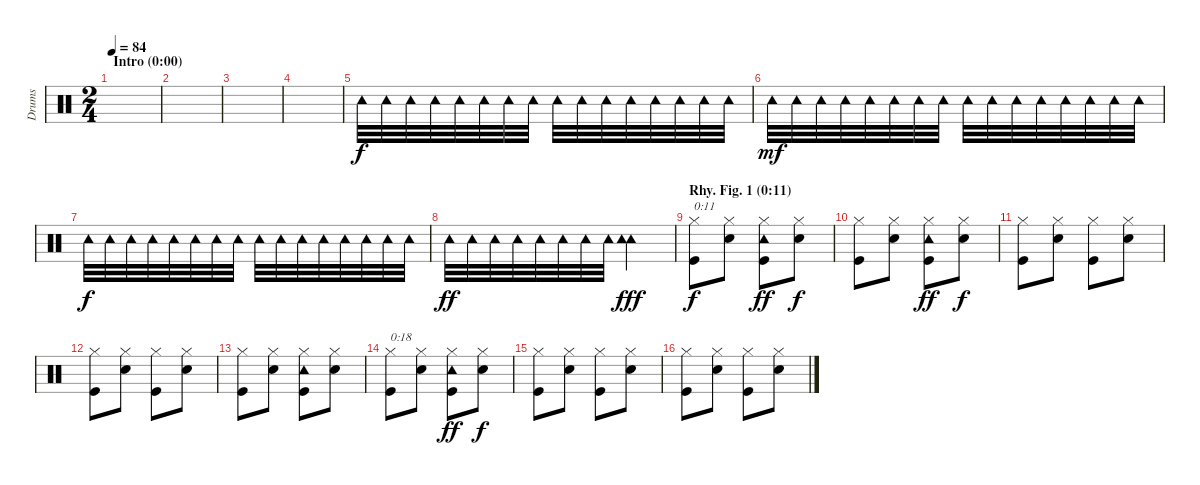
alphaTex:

\track ("Drums" "Drums") {instrument percussion}
\staff {score}
\articulation defaults
\ts (2 4)
\section ("" "Intro (0:00)")
\tempo 84
\clef neutral
\ks c
|
|
|
|
"Tambourine (hit)".32 "Tambourine (hit)".32 "Tambourine (hit)".32 "Tambourine (hit)".32 "Tambourine (hit)".32 "Tambourine (hit)".32 "Tambourine (hit)".32 "Tambourine (hit)".32 "Tambourine (hit)".32 "Tambourine (hit)".32 "Tambourine (hit)".32 "Tambourine (hit)".32 "Tambourine (hit)".32 "Tambourine (hit)".32 "Tambourine (hit)".32 "Tambourine (hit)".32 |
"Tambourine (hit)".32{dy mf} "Tambourine (hit)".32 "Tambourine (hit)".32 "Tambourine (hit)".32 "Tambourine (hit)".32 "Tambourine (hit)".32 "Tambourine (hit)".32 "Tambourine (hit)".32 "Tambourine (hit)".32 "Tambourine (hit)".32 "Tambourine (hit)".32 "Tambourine (hit)".32 "Tambourine (hit)".32 "Tambourine (hit)".32 "Tambourine (hit)".32 "Tambourine (hit)".32 |
"Tambourine (hit)".32{dy f} "Tambourine (hit)".32 "Tambourine (hit)".32 "Tambourine (hit)".32 "Tambourine (hit)".32 "Tambourine (hit)".32 "Tambourine (hit)".32 "Tambourine (hit)".32 "Tambourine (hit)".32 "Tambourine (hit)".32 "Tambourine (hit)".32 "Tambourine (hit)".32 "Tambourine (hit)".32 "Tambourine (hit)".32 "Tambourine (hit)".32 "Tambourine (hit)".32 |
"Tambourine (hit)".32{dy ff} "Tambourine (hit)".32 "Tambourine (hit)".32 "Tambourine (hit)".32 "Tambourine (hit)".32 "Tambourine (hit)".32 "Tambourine (hit)".32 "Tambourine (hit)".32 ("Tambourine (hit)" "Tambourine (hit)").4{dy fff} |
\section ("" "Rhy. Fig. 1 (0:11)")
("Hi-Hat (closed)" "Kick (hit)").8{txt "0:11" dy f} ("Hi-Hat (closed)" "Electric Snare (hit)").8 ("Tambourine (hit)" "Hi-Hat (closed)" "Kick (hit)").8{dy ff} ("Hi-Hat (closed)" "Electric Snare (hit)").8{dy f} |
("Hi-Hat (closed)" "Kick (hit)").8 ("Hi-Hat (closed)" "Electric Snare (hit)").8 ("Tambourine (hit)" "Hi-Hat (closed)" "Kick (hit)").8{dy ff} ("Hi-Hat (closed)" "Electric Snare (hit)").8{dy f} |
("Hi-Hat (closed)" "Kick (hit)").8 ("Hi-Hat (closed)" "Electric Snare (hit)").8 ("Hi-Hat (closed)" "Kick (hit)").8 ("Hi-Hat (closed)" "Electric Snare (hit)").8 |
("Hi-Hat (closed)" "Kick (hit)").8 ("Hi-Hat (closed)" "Electric Snare (hit)").8 ("Hi-Hat (closed)" "Kick (hit)").8 ("Hi-Hat (closed)" "Electric Snare (hit)").8 |
("Hi-Hat (closed)" "Kick (hit)").8 ("Hi-Hat (closed)" "Electric Snare (hit)").8 ("Tambourine (hit)" "Hi-Hat (closed)" "Kick (hit)").8 ("Hi-Hat (closed)" "Electric Snare (hit)").8 |
("Hi-Hat (closed)" "Kick (hit)").8{txt "0:18"} ("Hi-Hat (closed)" "Electric Snare (hit)").8 ("Tambourine (hit)" "Hi-Hat (closed)" "Kick (hit)").8{dy ff} ("Hi-Hat (closed)" "Electric Snare (hit)").8{dy f} |
("Hi-Hat (closed)" "Kick (hit)").8 ("Hi-Hat (closed)" "Electric Snare (hit)").8 ("Hi-Hat (closed)" "Kick (hit)").8 ("Hi-Hat (closed)" "Electric Snare (hit)").8 |
("Hi-Hat (closed)" "Kick (hit)").8 ("Hi-Hat (closed)" "Electric Snare (hit)").8 ("Hi-Hat (closed)" "Kick (hit)").8 ("Hi-Hat (closed)" "Electric Snare (hit)").8
